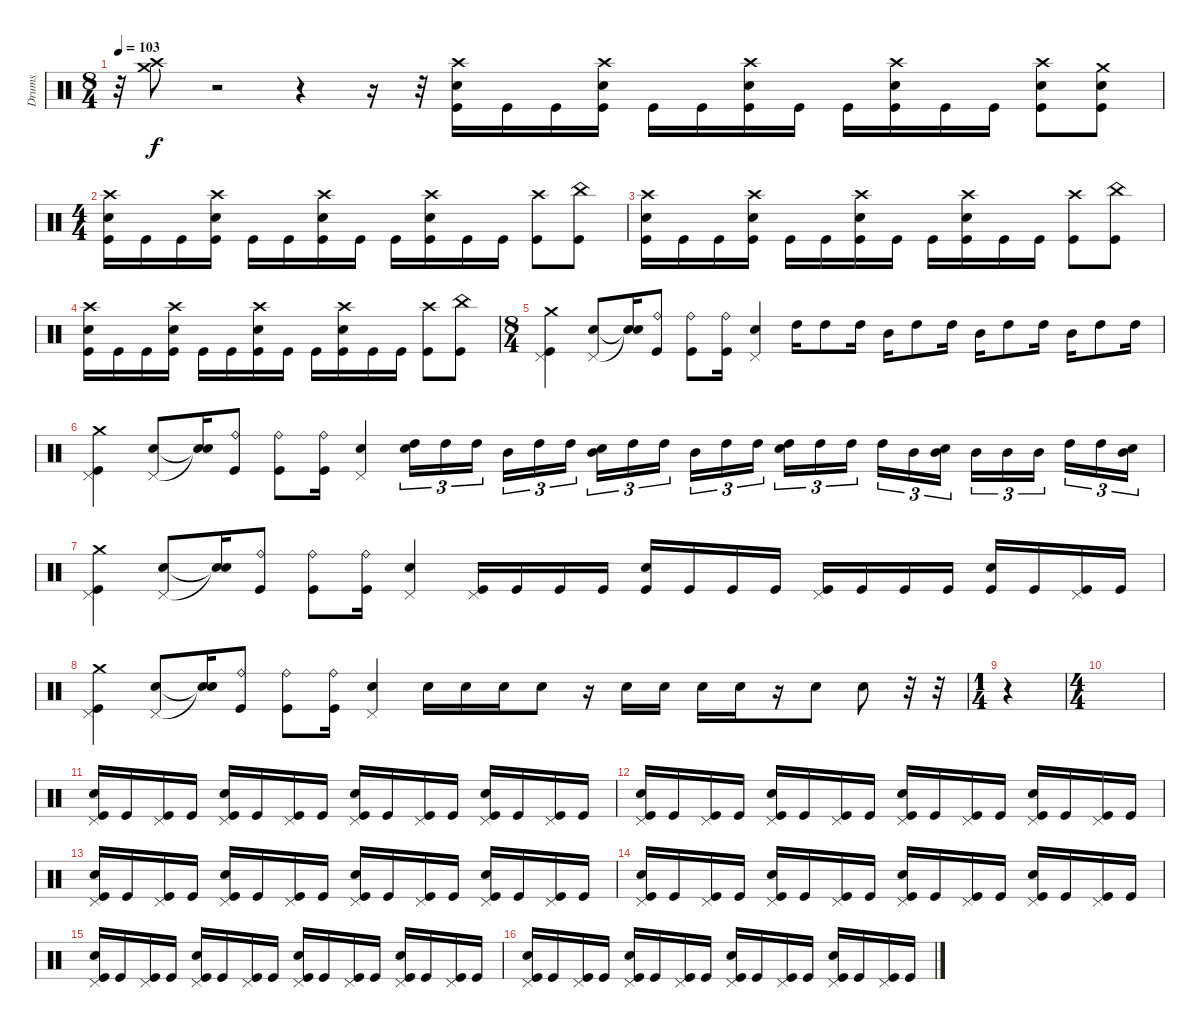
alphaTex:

\track ("Drums" "Drums") {instrument percussion}
\staff {score}
\articulation defaults
\ts (8 4)
\tempo 103
\clef neutral
\ks c
r.32{dy f} ("Crash high (hit)" "Crash medium (hit)").8 r.2 r.4 r.16 r.32 ("Crash high (hit)" "Electric Snare (hit)" "Kick (hit)").16 "Kick (hit)".16 "Kick (hit)".16 ("Crash high (hit)" "Electric Snare (hit)" "Kick (hit)").16 "Kick (hit)".16 "Kick (hit)".16 ("Crash high (hit)" "Electric Snare (hit)" "Kick (hit)").16 "Kick (hit)".16 "Kick (hit)".16 ("Crash high (hit)" "Electric Snare (hit)" "Kick (hit)").16 "Kick (hit)".16 "Kick (hit)".16 ("Crash high (hit)" "Electric Snare (hit)" "Kick (hit)").8 ("Crash medium (hit)" "Electric Snare (hit)" "Kick (hit)").8 |
\ts (4 4)
("Crash high (hit)" "Electric Snare (hit)" "Kick (hit)").16 "Kick (hit)".16 "Kick (hit)".16 ("Crash high (hit)" "Electric Snare (hit)" "Kick (hit)").16 "Kick (hit)".16 "Kick (hit)".16 ("Crash high (hit)" "Electric Snare (hit)" "Kick (hit)").16 "Kick (hit)".16 "Kick (hit)".16 ("Crash high (hit)" "Electric Snare (hit)" "Kick (hit)").16 "Kick (hit)".16 "Kick (hit)".16 ("Crash high (hit)" "Kick (hit)").8 ("China (hit)" "Kick (hit)").8 |
("Crash high (hit)" "Electric Snare (hit)" "Kick (hit)").16 "Kick (hit)".16 "Kick (hit)".16 ("Crash high (hit)" "Electric Snare (hit)" "Kick (hit)").16 "Kick (hit)".16 "Kick (hit)".16 ("Crash high (hit)" "Electric Snare (hit)" "Kick (hit)").16 "Kick (hit)".16 "Kick (hit)".16 ("Crash high (hit)" "Electric Snare (hit)" "Kick (hit)").16 "Kick (hit)".16 "Kick (hit)".16 ("Crash high (hit)" "Kick (hit)").8 ("China (hit)" "Kick (hit)").8 |
("Crash high (hit)" "Electric Snare (hit)" "Kick (hit)").16 "Kick (hit)".16 "Kick (hit)".16 ("Crash high (hit)" "Electric Snare (hit)" "Kick (hit)").16 "Kick (hit)".16 "Kick (hit)".16 ("Crash high (hit)" "Electric Snare (hit)" "Kick (hit)").16 "Kick (hit)".16 "Kick (hit)".16 ("Crash high (hit)" "Electric Snare (hit)" "Kick (hit)").16 "Kick (hit)".16 "Kick (hit)".16 ("Crash high (hit)" "Kick (hit)").8 ("China (hit)" "Kick (hit)").8 |
\ts (8 4)
("Crash medium (hit)" "Pedal Hi-Hat (hit)" "Kick (hit)").4 ("Pedal Hi-Hat (hit)" "Electric Snare (hit)").8 ("Snare (hit)"{t} "Snare (hit)"{t}).16 ("Kick (hit)" "Ride (bell)").8 ("Ride (bell)" "Kick (hit)").8 ("Ride (bell)" "Kick (hit)").16 ("Pedal Hi-Hat (hit)" "Electric Snare (hit)").4 "High Tom (hit)".16 "High Tom (hit)".8 "High Tom (hit)".16 "Mid Tom (hit)".16 "High Tom (hit)".8 "High Tom (hit)".16 "Mid Tom (hit)".16 "High Tom (hit)".8 "High Tom (hit)".16 "Mid Tom (hit)".16 "High Tom (hit)".8 "High Tom (hit)".16 |
("Crash medium (hit)" "Pedal Hi-Hat (hit)" "Kick (hit)").4 ("Pedal Hi-Hat (hit)" "Electric Snare (hit)").8 ("Snare (hit)"{t} "Snare (hit)"{t}).16 ("Kick (hit)" "Ride (bell)").8 ("Ride (bell)" "Kick (hit)").8 ("Ride (bell)" "Kick (hit)").16 ("Pedal Hi-Hat (hit)" "Electric Snare (hit)").4 ("Electric Snare (hit)" "High Tom (hit)").16{tu (3 2)} "High Tom (hit)".16{tu (3 2)} "High Tom (hit)".16{tu (3 2)} "Mid Tom (hit)".16{tu (3 2)} "High Tom (hit)".16{tu (3 2)} "High Tom (hit)".16{tu (3 2)} ("Electric Snare (hit)" "Mid Tom (hit)").16{tu (3 2)} "High Tom (hit)".16{tu (3 2)} "High Tom (hit)".16{tu (3 2)} "Mid Tom (hit)".16{tu (3 2)} "High Tom (hit)".16{tu (3 2)} "High Tom (hit)".16{tu (3 2)} ("Electric Snare (hit)" "High Tom (hit)").16{tu (3 2)} "High Tom (hit)".16{tu (3 2)} "High Tom (hit)".16{tu (3 2)} "High Tom (hit)".16{tu (3 2)} "Mid Tom (hit)".16{tu (3 2)} ("Electric Snare (hit)" "Mid Tom (hit)").16{tu (3 2)} "Mid Tom (hit)".16{tu (3 2)} "Mid Tom (hit)".16{tu (3 2)} "Mid Tom (hit)".16{tu (3 2)} "High Tom (hit)".16{tu (3 2)} "High Tom (hit)".16{tu (3 2)} ("Electric Snare (hit)" "Mid Tom (hit)").16{tu (3 2)} |
("Crash medium (hit)" "Pedal Hi-Hat (hit)" "Kick (hit)").4 ("Pedal Hi-Hat (hit)" "Electric Snare (hit)").8 ("Snare (hit)"{t} "Snare (hit)"{t}).16 ("Kick (hit)" "Ride (bell)").8 ("Ride (bell)" "Kick (hit)").8 ("Ride (bell)" "Kick (hit)").16 ("Pedal Hi-Hat (hit)" "Electric Snare (hit)").4 ("Pedal Hi-Hat (hit)" "Kick (hit)").16 "Kick (hit)".16 "Kick (hit)".16 "Kick (hit)".16 ("Electric Snare (hit)" "Kick (hit)").16 "Kick (hit)".16 "Kick (hit)".16 "Kick (hit)".16 ("Pedal Hi-Hat (hit)" "Kick (hit)").16 "Kick (hit)".16 "Kick (hit)".16 "Kick (hit)".16 ("Electric Snare (hit)" "Kick (hit)").16 "Kick (hit)".16 ("Pedal Hi-Hat (hit)" "Kick (hit)").16 "Kick (hit)".16 |
("Crash medium (hit)" "Pedal Hi-Hat (hit)" "Kick (hit)").4 ("Pedal Hi-Hat (hit)" "Electric Snare (hit)").8 ("Snare (hit)"{t} "Snare (hit)"{t}).16 ("Kick (hit)" "Ride (bell)").8 ("Ride (bell)" "Kick (hit)").8 ("Ride (bell)" "Kick (hit)").16 ("Pedal Hi-Hat (hit)" "Electric Snare (hit)").4 "Electric Snare (hit)".16 "Electric Snare (hit)".16 "Electric Snare (hit)".16 "Electric Snare (hit)".8 r.16 "Electric Snare (hit)".16 "Electric Snare (hit)".16 "Electric Snare (hit)".16 "Electric Snare (hit)".16 r.16 "Electric Snare (hit)".8 "Electric Snare (hit)".8 r.32 r.32 |
\ts (1 4)
r.4 |
\ts (4 4)
|
("Pedal Hi-Hat (hit)" "Electric Snare (hit)" "Kick (hit)").16 "Kick (hit)".16 ("Pedal Hi-Hat (hit)" "Kick (hit)").16 "Kick (hit)".16 ("Pedal Hi-Hat (hit)" "Electric Snare (hit)" "Kick (hit)").16 "Kick (hit)".16 ("Pedal Hi-Hat (hit)" "Kick (hit)").16 "Kick (hit)".16 ("Pedal Hi-Hat (hit)" "Electric Snare (hit)" "Kick (hit)").16 "Kick (hit)".16 ("Pedal Hi-Hat (hit)" "Kick (hit)").16 "Kick (hit)".16 ("Pedal Hi-Hat (hit)" "Electric Snare (hit)" "Kick (hit)").16 "Kick (hit)".16 ("Pedal Hi-Hat (hit)" "Kick (hit)").16 "Kick (hit)".16 |
("Pedal Hi-Hat (hit)" "Electric Snare (hit)" "Kick (hit)").16 "Kick (hit)".16 ("Pedal Hi-Hat (hit)" "Kick (hit)").16 "Kick (hit)".16 ("Pedal Hi-Hat (hit)" "Electric Snare (hit)" "Kick (hit)").16 "Kick (hit)".16 ("Pedal Hi-Hat (hit)" "Kick (hit)").16 "Kick (hit)".16 ("Pedal Hi-Hat (hit)" "Electric Snare (hit)" "Kick (hit)").16 "Kick (hit)".16 ("Pedal Hi-Hat (hit)" "Kick (hit)").16 "Kick (hit)".16 ("Pedal Hi-Hat (hit)" "Electric Snare (hit)" "Kick (hit)").16 "Kick (hit)".16 ("Pedal Hi-Hat (hit)" "Kick (hit)").16 "Kick (hit)".16 |
("Pedal Hi-Hat (hit)" "Electric Snare (hit)" "Kick (hit)").16 "Kick (hit)".16 ("Pedal Hi-Hat (hit)" "Kick (hit)").16 "Kick (hit)".16 ("Pedal Hi-Hat (hit)" "Electric Snare (hit)" "Kick (hit)").16 "Kick (hit)".16 ("Pedal Hi-Hat (hit)" "Kick (hit)").16 "Kick (hit)".16 ("Pedal Hi-Hat (hit)" "Electric Snare (hit)" "Kick (hit)").16 "Kick (hit)".16 ("Pedal Hi-Hat (hit)" "Kick (hit)").16 "Kick (hit)".16 ("Pedal Hi-Hat (hit)" "Electric Snare (hit)" "Kick (hit)").16 "Kick (hit)".16 ("Pedal Hi-Hat (hit)" "Kick (hit)").16 "Kick (hit)".16 |
("Pedal Hi-Hat (hit)" "Electric Snare (hit)" "Kick (hit)").16 "Kick (hit)".16 ("Pedal Hi-Hat (hit)" "Kick (hit)").16 "Kick (hit)".16 ("Pedal Hi-Hat (hit)" "Electric Snare (hit)" "Kick (hit)").16 "Kick (hit)".16 ("Pedal Hi-Hat (hit)" "Kick (hit)").16 "Kick (hit)".16 ("Pedal Hi-Hat (hit)" "Electric Snare (hit)" "Kick (hit)").16 "Kick (hit)".16 ("Pedal Hi-Hat (hit)" "Kick (hit)").16 "Kick (hit)".16 ("Pedal Hi-Hat (hit)" "Electric Snare (hit)" "Kick (hit)").16 "Kick (hit)".16 ("Pedal Hi-Hat (hit)" "Kick (hit)").16 "Kick (hit)".16 |
("Pedal Hi-Hat (hit)" "Electric Snare (hit)" "Kick (hit)").16 "Kick (hit)".16 ("Pedal Hi-Hat (hit)" "Kick (hit)").16 "Kick (hit)".16 ("Pedal Hi-Hat (hit)" "Electric Snare (hit)" "Kick (hit)").16 "Kick (hit)".16 ("Pedal Hi-Hat (hit)" "Kick (hit)").16 "Kick (hit)".16 ("Pedal Hi-Hat (hit)" "Electric Snare (hit)" "Kick (hit)").16 "Kick (hit)".16 ("Pedal Hi-Hat (hit)" "Kick (hit)").16 "Kick (hit)".16 ("Pedal Hi-Hat (hit)" "Electric Snare (hit)" "Kick (hit)").16 "Kick (hit)".16 ("Pedal Hi-Hat (hit)" "Kick (hit)").16 "Kick (hit)".16 |
("Pedal Hi-Hat (hit)" "Electric Snare (hit)" "Kick (hit)").16 "Kick (hit)".16 ("Pedal Hi-Hat (hit)" "Kick (hit)").16 "Kick (hit)".16 ("Pedal Hi-Hat (hit)" "Electric Snare (hit)" "Kick (hit)").16 "Kick (hit)".16 ("Pedal Hi-Hat (hit)" "Kick (hit)").16 "Kick (hit)".16 ("Pedal Hi-Hat (hit)" "Electric Snare (hit)" "Kick (hit)").16 "Kick (hit)".16 ("Pedal Hi-Hat (hit)" "Kick (hit)").16 "Kick (hit)".16 ("Pedal Hi-Hat (hit)" "Electric Snare (hit)" "Kick (hit)").16 "Kick (hit)".16 ("Pedal Hi-Hat (hit)" "Kick (hit)").16 "Kick (hit)".16
